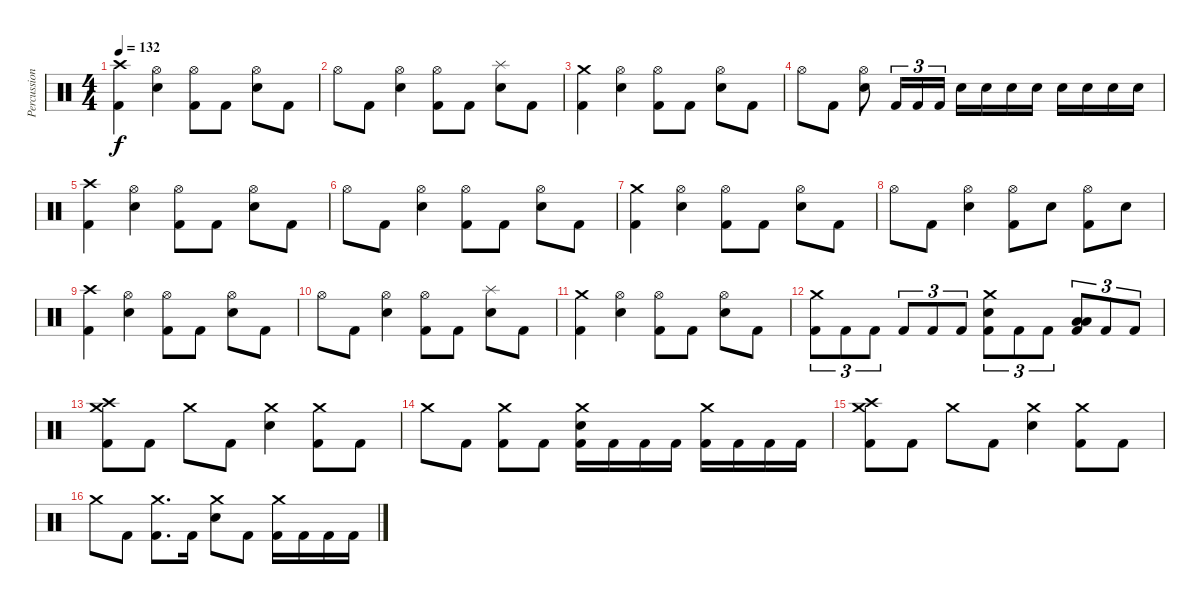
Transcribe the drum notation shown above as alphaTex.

\track ("Percussion" "Percussion") {instrument percussion}
\staff {score}
\articulation defaults
\ts (4 4)
\tempo 132
\clef neutral
\ks c
("Crash high (hit)" "Kick (hit) 2").4{dy f} ("Hi-Hat (open)" "Electric Snare (hit)").4 ("Hi-Hat (open)" "Kick (hit) 2").8 "Kick (hit) 2".8 ("Hi-Hat (open)" "Electric Snare (hit)").8 "Kick (hit) 2".8 |
"Hi-Hat (open)".8 "Kick (hit) 2".8 ("Hi-Hat (open)" "Electric Snare (hit)").4 ("Hi-Hat (open)" "Kick (hit) 2").8 "Kick (hit) 2".8 ("Splash (hit)" "Electric Snare (hit)").8 "Kick (hit) 2".8 |
("Crash medium (hit)" "Kick (hit) 2").4 ("Hi-Hat (open)" "Electric Snare (hit)").4 ("Hi-Hat (open)" "Kick (hit) 2").8 "Kick (hit) 2".8 ("Hi-Hat (open)" "Electric Snare (hit)").8 "Kick (hit) 2".8 |
"Hi-Hat (open)".8 "Kick (hit) 2".8 ("Hi-Hat (open)" "Electric Snare (hit)").8 "Kick (hit) 2".16{tu (3 2)} "Kick (hit) 2".16{tu (3 2)} "Kick (hit) 2".16{tu (3 2)} "Electric Snare (hit)".16 "Electric Snare (hit)".16 "Electric Snare (hit)".16 "Electric Snare (hit)".16 "Electric Snare (hit)".16 "Electric Snare (hit)".16 "Electric Snare (hit)".16 "Electric Snare (hit)".16 |
("Crash high (hit)" "Kick (hit) 2").4 ("Hi-Hat (open)" "Electric Snare (hit)").4 ("Hi-Hat (open)" "Kick (hit) 2").8 "Kick (hit) 2".8 ("Hi-Hat (open)" "Electric Snare (hit)").8 "Kick (hit) 2".8 |
"Hi-Hat (open)".8 "Kick (hit) 2".8 ("Hi-Hat (open)" "Electric Snare (hit)").4 ("Hi-Hat (open)" "Kick (hit) 2").8 "Kick (hit) 2".8 ("Hi-Hat (open)" "Electric Snare (hit)").8 "Kick (hit) 2".8 |
("Crash medium (hit)" "Kick (hit) 2").4 ("Hi-Hat (open)" "Electric Snare (hit)").4 ("Hi-Hat (open)" "Kick (hit) 2").8 "Kick (hit) 2".8 ("Hi-Hat (open)" "Electric Snare (hit)").8 "Kick (hit) 2".8 |
"Hi-Hat (open)".8 "Kick (hit) 2".8 ("Hi-Hat (open)" "Electric Snare (hit)").4 ("Hi-Hat (open)" "Kick (hit) 2").8 "Electric Snare (hit)".8 ("Hi-Hat (open)" "Kick (hit) 2").8 "Electric Snare (hit)".8 |
("Crash high (hit)" "Kick (hit) 2").4 ("Hi-Hat (open)" "Electric Snare (hit)").4 ("Hi-Hat (open)" "Kick (hit) 2").8 "Kick (hit) 2".8 ("Hi-Hat (open)" "Electric Snare (hit)").8 "Kick (hit) 2".8 |
"Hi-Hat (open)".8 "Kick (hit) 2".8 ("Hi-Hat (open)" "Electric Snare (hit)").4 ("Hi-Hat (open)" "Kick (hit) 2").8 "Kick (hit) 2".8 ("Splash (hit)" "Electric Snare (hit)").8 "Kick (hit) 2".8 |
("Crash medium (hit)" "Kick (hit) 2").4 ("Hi-Hat (open)" "Electric Snare (hit)").4 ("Hi-Hat (open)" "Kick (hit) 2").8 "Kick (hit) 2".8 ("Hi-Hat (open)" "Electric Snare (hit)").8 "Kick (hit) 2".8 |
("Crash medium (hit)" "Kick (hit) 2").8{tu (3 2)} "Kick (hit) 2".8{tu (3 2)} "Kick (hit) 2".8{tu (3 2)} "Kick (hit) 2".8{tu (3 2)} "Kick (hit) 2".8{tu (3 2)} "Kick (hit) 2".8{tu (3 2)} ("Crash medium (hit)" "Electric Snare (hit)" "Kick (hit) 2").8{tu (3 2)} "Kick (hit) 2".8{tu (3 2)} "Kick (hit) 2".8{tu (3 2)} ("Low Tom (hit)" "Low Floor Tom (hit)" "Kick (hit) 2").8{tu (3 2)} "Kick (hit) 2".8{tu (3 2)} "Kick (hit) 2".8{tu (3 2)} |
("Crash medium (hit)" "Crash high (hit)" "Kick (hit) 2").8 "Kick (hit) 2".8 "Crash medium (hit)".8 "Kick (hit) 2".8 ("Crash medium (hit)" "Electric Snare (hit)").4 ("Crash medium (hit)" "Kick (hit) 2").8 "Kick (hit) 2".8 |
"Crash medium (hit)".8 "Kick (hit) 2".8 ("Crash medium (hit)" "Kick (hit) 2").8 "Kick (hit) 2".8 ("Crash medium (hit)" "Electric Snare (hit)" "Kick (hit) 2").16 "Kick (hit) 2".16 "Kick (hit) 2".16 "Kick (hit) 2".16 ("Crash medium (hit)" "Kick (hit) 2").16 "Kick (hit) 2".16 "Kick (hit) 2".16 "Kick (hit) 2".16 |
("Crash medium (hit)" "Crash high (hit)" "Kick (hit) 2").8 "Kick (hit) 2".8 "Crash medium (hit)".8 "Kick (hit) 2".8 ("Crash medium (hit)" "Electric Snare (hit)").4 ("Crash medium (hit)" "Kick (hit) 2").8 "Kick (hit) 2".8 |
"Crash medium (hit)".8 "Kick (hit) 2".8 ("Crash medium (hit)" "Kick (hit) 2").8{d} "Kick (hit) 2".16 ("Crash medium (hit)" "Electric Snare (hit)").8 "Kick (hit) 2".8 ("Crash medium (hit)" "Kick (hit) 2").16 "Kick (hit) 2".16 "Kick (hit) 2".16 "Kick (hit) 2".16
